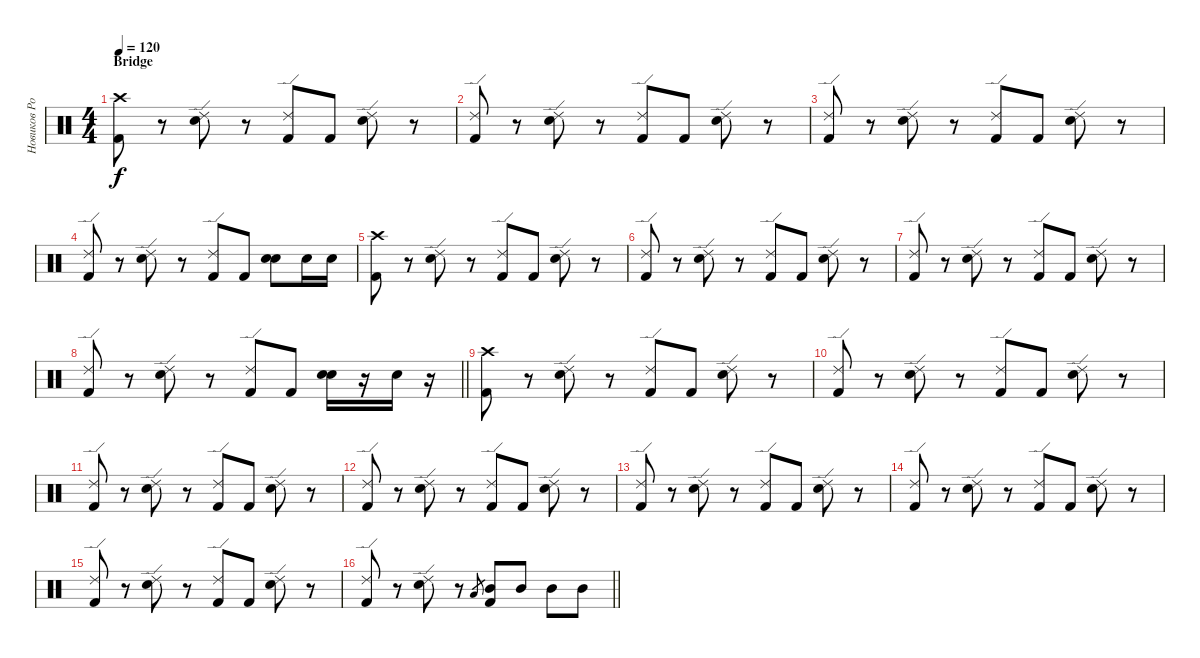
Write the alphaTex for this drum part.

\track ("Новиков Роман  ( Ударные )" "Новиков Ро") {instrument percussion}
\staff {score}
\articulation defaults
\ts (4 4)
\section ("" "Bridge")
\tempo 120
\clef neutral
\ks c
("Crash high (hit)" "Kick (hit) 2").8{dy f} r.8 ("Ride (edge) 2" "Electric Snare (hit)").8 r.8 ("Ride (edge) 2" "Kick (hit) 2").8 "Kick (hit) 2".8 ("Ride (edge) 2" "Electric Snare (hit)").8 r.8 |
("Ride (edge) 2" "Kick (hit) 2").8 r.8 ("Ride (edge) 2" "Electric Snare (hit)").8 r.8 ("Ride (edge) 2" "Kick (hit) 2").8 "Kick (hit) 2".8 ("Ride (edge) 2" "Electric Snare (hit)").8 r.8 |
("Ride (edge) 2" "Kick (hit) 2").8 r.8 ("Ride (edge) 2" "Electric Snare (hit)").8 r.8 ("Ride (edge) 2" "Kick (hit) 2").8 "Kick (hit) 2".8 ("Ride (edge) 2" "Electric Snare (hit)").8 r.8 |
("Ride (edge) 2" "Kick (hit) 2").8 r.8 ("Ride (edge) 2" "Electric Snare (hit)").8 r.8 ("Ride (edge) 2" "Kick (hit) 2").8 "Kick (hit) 2".8 ("Snare (hit) 2" "Electric Snare (hit)").8 "Snare (hit) 2".16 "Snare (hit) 2".16 |
("Crash high (hit)" "Kick (hit) 2").8 r.8 ("Ride (edge) 2" "Electric Snare (hit)").8 r.8 ("Ride (edge) 2" "Kick (hit) 2").8 "Kick (hit) 2".8 ("Ride (edge) 2" "Electric Snare (hit)").8 r.8 |
("Ride (edge) 2" "Kick (hit) 2").8 r.8 ("Ride (edge) 2" "Electric Snare (hit)").8 r.8 ("Ride (edge) 2" "Kick (hit) 2").8 "Kick (hit) 2".8 ("Ride (edge) 2" "Electric Snare (hit)").8 r.8 |
("Ride (edge) 2" "Kick (hit) 2").8 r.8 ("Ride (edge) 2" "Electric Snare (hit)").8 r.8 ("Ride (edge) 2" "Kick (hit) 2").8 "Kick (hit) 2".8 ("Ride (edge) 2" "Electric Snare (hit)").8 r.8 |
\barLineRight lightlight
("Ride (edge) 2" "Kick (hit) 2").8 r.8 ("Ride (edge) 2" "Electric Snare (hit)").8 r.8 ("Ride (edge) 2" "Kick (hit) 2").8 "Kick (hit) 2".8 ("Snare (hit) 2" "Electric Snare (hit)").16 r.16 "Snare (hit) 2".16 r.16 |
\section ("" "")
("Crash high (hit)" "Kick (hit) 2").8 r.8 ("Ride (edge) 2" "Electric Snare (hit)").8 r.8 ("Ride (edge) 2" "Kick (hit) 2").8 "Kick (hit) 2".8 ("Ride (edge) 2" "Electric Snare (hit)").8 r.8 |
("Ride (edge) 2" "Kick (hit) 2").8 r.8 ("Ride (edge) 2" "Electric Snare (hit)").8 r.8 ("Ride (edge) 2" "Kick (hit) 2").8 "Kick (hit) 2".8 ("Ride (edge) 2" "Electric Snare (hit)").8 r.8 |
("Ride (edge) 2" "Kick (hit) 2").8 r.8 ("Ride (edge) 2" "Electric Snare (hit)").8 r.8 ("Ride (edge) 2" "Kick (hit) 2").8 "Kick (hit) 2".8 ("Ride (edge) 2" "Electric Snare (hit)").8 r.8 |
("Ride (edge) 2" "Kick (hit) 2").8 r.8 ("Ride (edge) 2" "Electric Snare (hit)").8 r.8 ("Ride (edge) 2" "Kick (hit) 2").8 "Kick (hit) 2".8 ("Ride (edge) 2" "Electric Snare (hit)").8 r.8 |
("Ride (edge) 2" "Kick (hit) 2").8 r.8 ("Ride (edge) 2" "Electric Snare (hit)").8 r.8 ("Ride (edge) 2" "Kick (hit) 2").8 "Kick (hit) 2".8 ("Ride (edge) 2" "Electric Snare (hit)").8 r.8 |
("Ride (edge) 2" "Kick (hit) 2").8 r.8 ("Ride (edge) 2" "Electric Snare (hit)").8 r.8 ("Ride (edge) 2" "Kick (hit) 2").8 "Kick (hit) 2".8 ("Ride (edge) 2" "Electric Snare (hit)").8 r.8 |
("Ride (edge) 2" "Kick (hit) 2").8 r.8 ("Ride (edge) 2" "Electric Snare (hit)").8 r.8 ("Ride (edge) 2" "Kick (hit) 2").8 "Kick (hit) 2".8 ("Ride (edge) 2" "Electric Snare (hit)").8 r.8 |
\barLineRight lightlight
("Ride (edge) 2" "Kick (hit) 2").8 r.8 ("Ride (edge) 2" "Electric Snare (hit)").8 r.8 "Low Tom (hit)"{h}.8{gr} ("Mid Tom (hit)" "Kick (hit) 2").8 "Mid Tom (hit)".8 "Mid Tom (hit)".8 "Mid Tom (hit)".8
